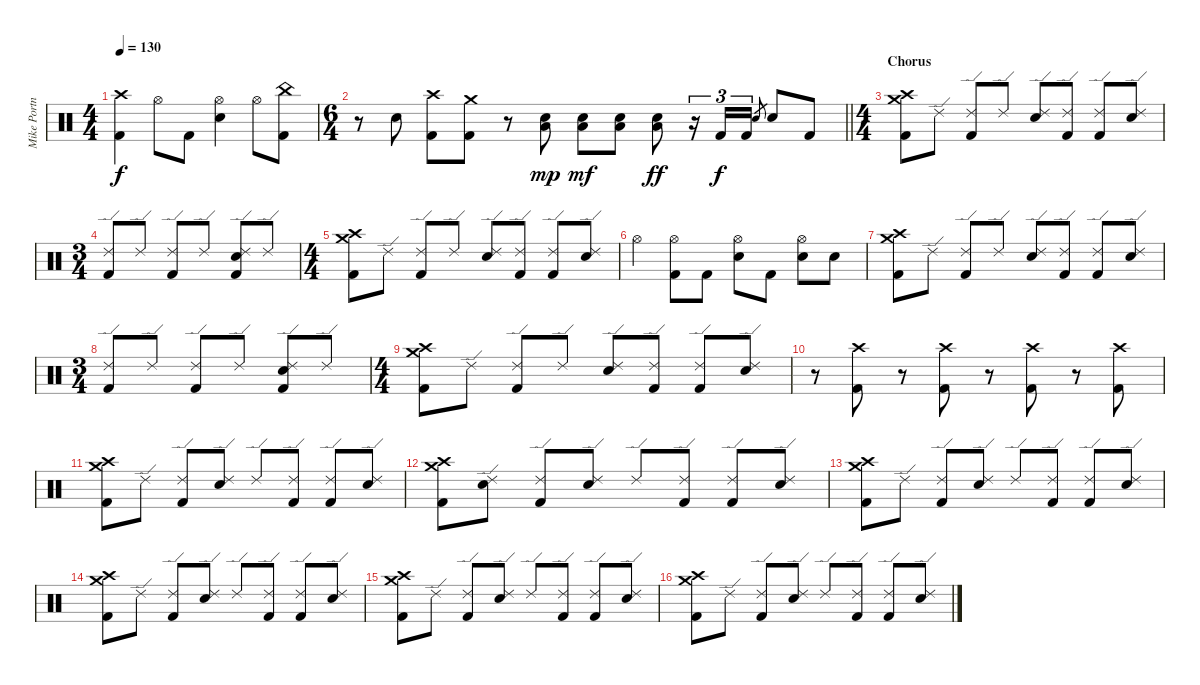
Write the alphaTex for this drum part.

\track ("Mike Portnoy" "Mike Portn") {instrument percussion}
\staff {score}
\articulation defaults
\ts (4 4)
\tempo 130
\clef neutral
\ks c
("Crash high (hit)" "Kick (hit) 2").4{dy f} "Hi-Hat (open)".8 "Kick (hit) 2".8 ("Hi-Hat (open)" "Electric Snare (hit)").4 "Hi-Hat (open)".8 ("China (hit)" "Kick (hit) 2").8 |
\ts (6 4)
\barLineRight lightlight
r.8 "Electric Snare (hit)".8 ("Crash high (hit)" "Kick (hit) 2").8 ("Crash medium (hit)" "Kick (hit) 2").8 r.8 ("Electric Snare (hit)" "Low Floor Tom (hit)").8{dy mp} ("Electric Snare (hit)" "Low Floor Tom (hit)").8{dy mf} ("Electric Snare (hit)" "Low Floor Tom (hit)").8 ("Electric Snare (hit)" "Low Floor Tom (hit)").8{dy ff} r.16{tu (3 2)} "Kick (hit) 2".16{tu (3 2) dy f} "Kick (hit) 2".16{tu (3 2)} "Electric Snare (hit)".8{gr} "Electric Snare (hit)".8 "Kick (hit) 2".8 |
\ts (4 4)
\section ("" "Chorus")
("Crash high (hit)" "Crash medium (hit)" "Kick (hit) 2").8 "Ride (edge) 2".8 ("Ride (edge) 2" "Kick (hit) 2").8 "Ride (edge) 2".8 ("Ride (edge) 2" "Snare (hit) 2").8 ("Ride (edge) 2" "Kick (hit) 2").8 ("Ride (edge) 2" "Kick (hit) 2").8 ("Ride (edge) 2" "Snare (hit) 2").8 |
\ts (3 4)
("Ride (edge) 2" "Kick (hit) 2").8 "Ride (edge) 2".8 ("Ride (edge) 2" "Kick (hit) 2").8 "Ride (edge) 2".8 ("Ride (edge) 2" "Snare (hit) 2" "Kick (hit) 2").8 "Ride (edge) 2".8 |
\ts (4 4)
("Crash high (hit)" "Crash medium (hit)" "Kick (hit) 2").8 "Ride (edge) 2".8 ("Ride (edge) 2" "Kick (hit) 2").8 "Ride (edge) 2".8 ("Ride (edge) 2" "Snare (hit) 2").8 ("Ride (edge) 2" "Kick (hit) 2").8 ("Ride (edge) 2" "Kick (hit) 2").8 ("Ride (edge) 2" "Snare (hit) 2").8 |
"Hi-Hat (open)".4 ("Hi-Hat (open)" "Kick (hit) 2").8 "Kick (hit) 2".8 ("Hi-Hat (open)" "Electric Snare (hit)").8 "Kick (hit) 2".8 ("Hi-Hat (open)" "Electric Snare (hit)").8 "Electric Snare (hit)".8 |
("Crash high (hit)" "Crash medium (hit)" "Kick (hit) 2").8 "Ride (edge) 2".8 ("Ride (edge) 2" "Kick (hit) 2").8 "Ride (edge) 2".8 ("Ride (edge) 2" "Snare (hit) 2").8 ("Ride (edge) 2" "Kick (hit) 2").8 ("Ride (edge) 2" "Kick (hit) 2").8 ("Ride (edge) 2" "Snare (hit) 2").8 |
\ts (3 4)
("Ride (edge) 2" "Kick (hit) 2").8 "Ride (edge) 2".8 ("Ride (edge) 2" "Kick (hit) 2").8 "Ride (edge) 2".8 ("Ride (edge) 2" "Snare (hit) 2" "Kick (hit) 2").8 "Ride (edge) 2".8 |
\ts (4 4)
("Crash high (hit)" "Crash medium (hit)" "Kick (hit) 2").8 "Ride (edge) 2".8 ("Ride (edge) 2" "Kick (hit) 2").8 "Ride (edge) 2".8 ("Ride (edge) 2" "Snare (hit) 2").8 ("Ride (edge) 2" "Kick (hit) 2").8 ("Ride (edge) 2" "Kick (hit) 2").8 ("Ride (edge) 2" "Snare (hit) 2").8 |
r.8{volume 0} ("Crash high (hit)" "Kick (hit) 2").8{volume 16} r.8{volume 0} ("Crash high (hit)" "Kick (hit) 2").8{volume 16} r.8{volume 0} ("Crash high (hit)" "Kick (hit) 2").8{volume 16} r.8{volume 0} ("Crash high (hit)" "Kick (hit) 2").8{volume 16} |
("Crash high (hit)" "Crash medium (hit)" "Kick (hit) 2").8 "Ride (edge) 2".8 ("Ride (edge) 2" "Kick (hit) 2").8 ("Ride (edge) 2" "Snare (hit) 2").8 "Ride (edge) 2".8 ("Ride (edge) 2" "Kick (hit) 2").8 ("Ride (edge) 2" "Kick (hit) 2").8 ("Ride (edge) 2" "Snare (hit) 2").8 |
("Crash high (hit)" "Crash medium (hit)" "Kick (hit) 2").8 ("Ride (edge) 2" "Snare (hit) 2").8 ("Ride (edge) 2" "Kick (hit) 2").8 ("Ride (edge) 2" "Snare (hit) 2").8 "Ride (edge) 2".8 ("Ride (edge) 2" "Kick (hit) 2").8 ("Ride (edge) 2" "Kick (hit) 2").8 ("Ride (edge) 2" "Snare (hit) 2").8 |
("Crash high (hit)" "Crash medium (hit)" "Kick (hit) 2").8 "Ride (edge) 2".8 ("Ride (edge) 2" "Kick (hit) 2").8 ("Ride (edge) 2" "Snare (hit) 2").8 "Ride (edge) 2".8 ("Ride (edge) 2" "Kick (hit) 2").8 ("Ride (edge) 2" "Kick (hit) 2").8 ("Ride (edge) 2" "Snare (hit) 2").8 |
("Crash high (hit)" "Crash medium (hit)" "Kick (hit) 2").8 "Ride (edge) 2".8 ("Ride (edge) 2" "Kick (hit) 2").8 ("Ride (edge) 2" "Snare (hit) 2").8 "Ride (edge) 2".8 ("Ride (edge) 2" "Kick (hit) 2").8 ("Ride (edge) 2" "Kick (hit) 2").8 ("Ride (edge) 2" "Snare (hit) 2").8 |
("Crash high (hit)" "Crash medium (hit)" "Kick (hit) 2").8 "Ride (edge) 2".8 ("Ride (edge) 2" "Kick (hit) 2").8 ("Ride (edge) 2" "Snare (hit) 2").8 "Ride (edge) 2".8 ("Ride (edge) 2" "Kick (hit) 2").8 ("Ride (edge) 2" "Kick (hit) 2").8 ("Ride (edge) 2" "Snare (hit) 2").8 |
("Crash high (hit)" "Crash medium (hit)" "Kick (hit) 2").8 "Ride (edge) 2".8 ("Ride (edge) 2" "Kick (hit) 2").8 ("Ride (edge) 2" "Snare (hit) 2").8 "Ride (edge) 2".8 ("Ride (edge) 2" "Kick (hit) 2").8 ("Ride (edge) 2" "Kick (hit) 2").8 ("Ride (edge) 2" "Snare (hit) 2").8
